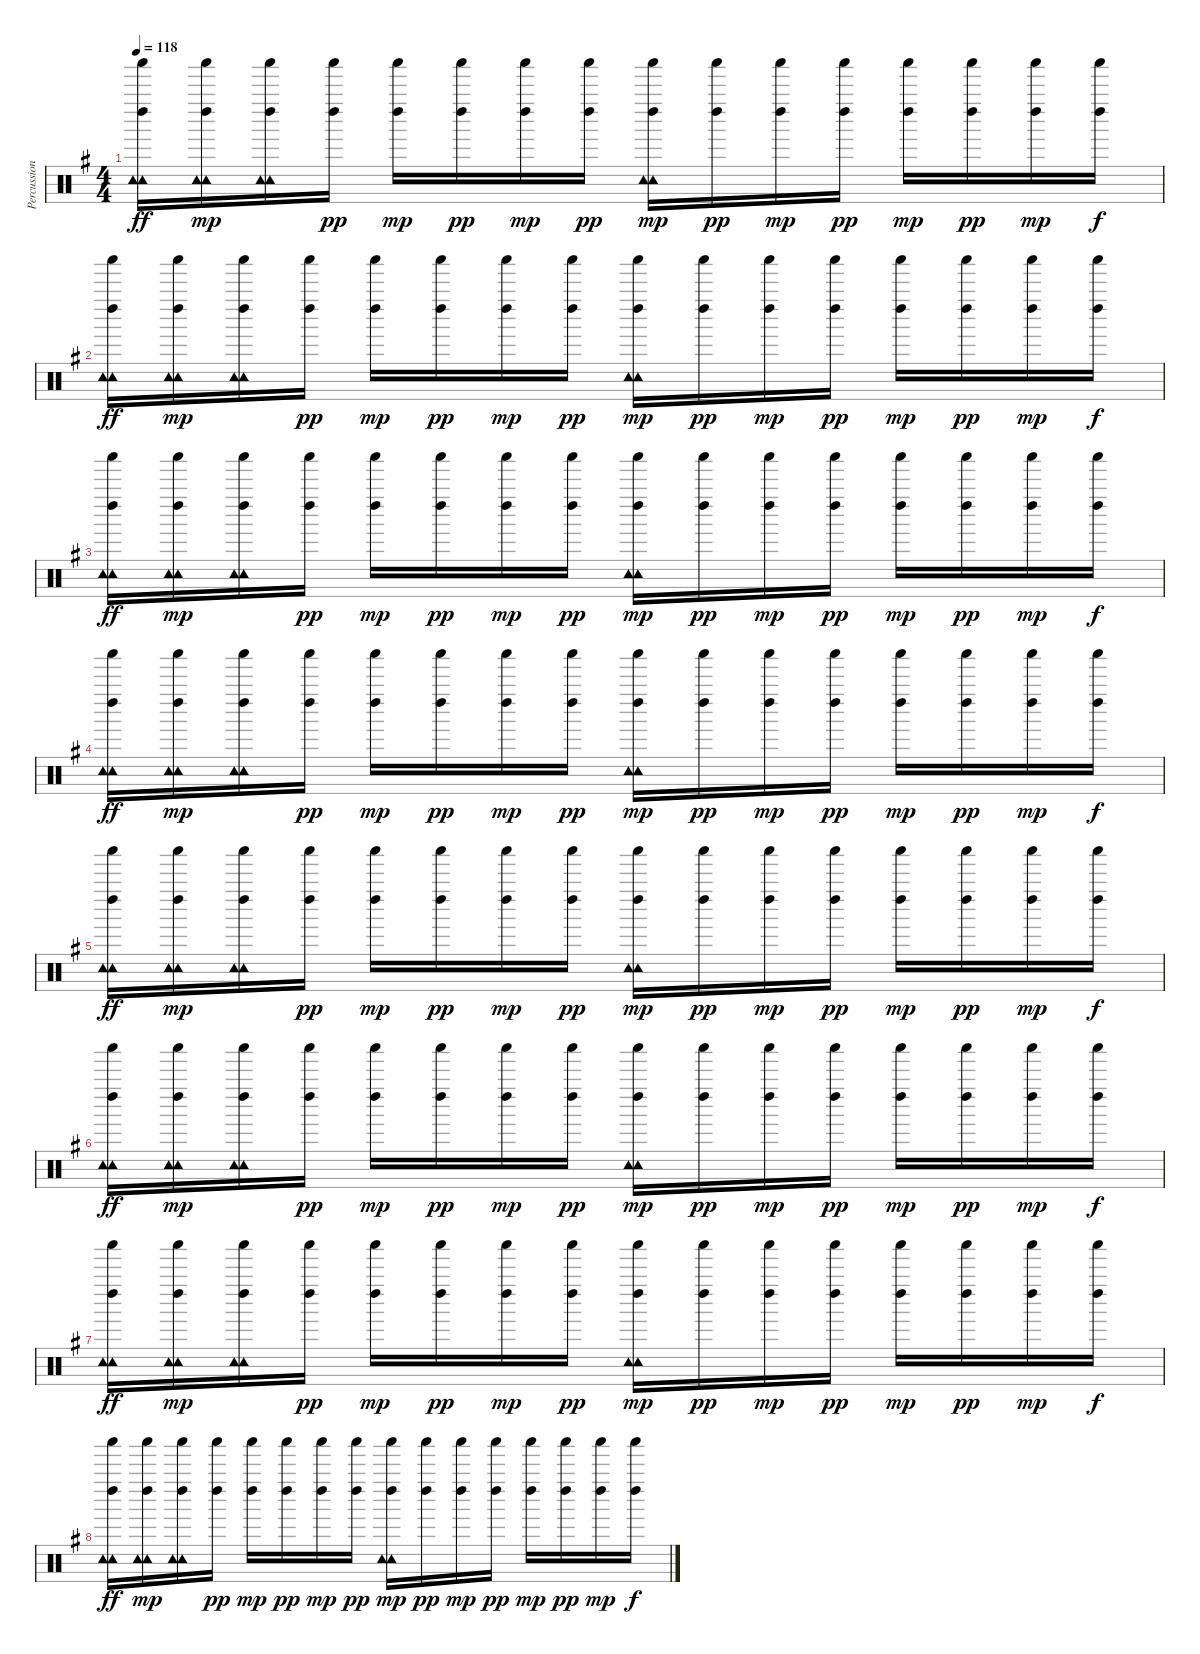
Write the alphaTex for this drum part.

\track ("Percussion" "Percussion") {instrument percussion}
\staff {score}
\articulation defaults
\ts (4 4)
\tempo 118
\clef neutral
\ks g
("Tambourine (hit)" "Tambourine (hit)" "Left Maraca (hit)" "Shaker (hit)").16{dy ff} ("Tambourine (hit)" "Tambourine (hit)" "Left Maraca (hit)" "Shaker (hit)").16{dy mp} ("Tambourine (hit)" "Tambourine (hit)" "Left Maraca (hit)" "Shaker (hit)").16 ("Left Maraca (hit)" "Shaker (hit)").16{dy pp} ("Left Maraca (hit)" "Shaker (hit)").16{dy mp} ("Left Maraca (hit)" "Shaker (hit)").16{dy pp} ("Left Maraca (hit)" "Shaker (hit)").16{dy mp} ("Left Maraca (hit)" "Shaker (hit)").16{dy pp} ("Tambourine (hit)" "Tambourine (hit)" "Left Maraca (hit)" "Shaker (hit)").16{dy mp} ("Left Maraca (hit)" "Shaker (hit)").16{dy pp} ("Left Maraca (hit)" "Shaker (hit)").16{dy mp} ("Left Maraca (hit)" "Shaker (hit)").16{dy pp} ("Left Maraca (hit)" "Shaker (hit)").16{dy mp} ("Left Maraca (hit)" "Shaker (hit)").16{dy pp} ("Left Maraca (hit)" "Shaker (hit)").16{dy mp} ("Left Maraca (hit)" "Shaker (hit)").16{dy f} |
("Tambourine (hit)" "Tambourine (hit)" "Left Maraca (hit)" "Shaker (hit)").16{dy ff} ("Tambourine (hit)" "Tambourine (hit)" "Left Maraca (hit)" "Shaker (hit)").16{dy mp} ("Tambourine (hit)" "Tambourine (hit)" "Left Maraca (hit)" "Shaker (hit)").16 ("Left Maraca (hit)" "Shaker (hit)").16{dy pp} ("Left Maraca (hit)" "Shaker (hit)").16{dy mp} ("Left Maraca (hit)" "Shaker (hit)").16{dy pp} ("Left Maraca (hit)" "Shaker (hit)").16{dy mp} ("Left Maraca (hit)" "Shaker (hit)").16{dy pp} ("Tambourine (hit)" "Tambourine (hit)" "Left Maraca (hit)" "Shaker (hit)").16{dy mp} ("Left Maraca (hit)" "Shaker (hit)").16{dy pp} ("Left Maraca (hit)" "Shaker (hit)").16{dy mp} ("Left Maraca (hit)" "Shaker (hit)").16{dy pp} ("Left Maraca (hit)" "Shaker (hit)").16{dy mp} ("Left Maraca (hit)" "Shaker (hit)").16{dy pp} ("Left Maraca (hit)" "Shaker (hit)").16{dy mp} ("Left Maraca (hit)" "Shaker (hit)").16{dy f} |
("Tambourine (hit)" "Tambourine (hit)" "Left Maraca (hit)" "Shaker (hit)").16{dy ff} ("Tambourine (hit)" "Tambourine (hit)" "Left Maraca (hit)" "Shaker (hit)").16{dy mp} ("Tambourine (hit)" "Tambourine (hit)" "Left Maraca (hit)" "Shaker (hit)").16 ("Left Maraca (hit)" "Shaker (hit)").16{dy pp} ("Left Maraca (hit)" "Shaker (hit)").16{dy mp} ("Left Maraca (hit)" "Shaker (hit)").16{dy pp} ("Left Maraca (hit)" "Shaker (hit)").16{dy mp} ("Left Maraca (hit)" "Shaker (hit)").16{dy pp} ("Tambourine (hit)" "Tambourine (hit)" "Left Maraca (hit)" "Shaker (hit)").16{dy mp} ("Left Maraca (hit)" "Shaker (hit)").16{dy pp} ("Left Maraca (hit)" "Shaker (hit)").16{dy mp} ("Left Maraca (hit)" "Shaker (hit)").16{dy pp} ("Left Maraca (hit)" "Shaker (hit)").16{dy mp} ("Left Maraca (hit)" "Shaker (hit)").16{dy pp} ("Left Maraca (hit)" "Shaker (hit)").16{dy mp} ("Left Maraca (hit)" "Shaker (hit)").16{dy f} |
("Tambourine (hit)" "Tambourine (hit)" "Left Maraca (hit)" "Shaker (hit)").16{dy ff} ("Tambourine (hit)" "Tambourine (hit)" "Left Maraca (hit)" "Shaker (hit)").16{dy mp} ("Tambourine (hit)" "Tambourine (hit)" "Left Maraca (hit)" "Shaker (hit)").16 ("Left Maraca (hit)" "Shaker (hit)").16{dy pp} ("Left Maraca (hit)" "Shaker (hit)").16{dy mp} ("Left Maraca (hit)" "Shaker (hit)").16{dy pp} ("Left Maraca (hit)" "Shaker (hit)").16{dy mp} ("Left Maraca (hit)" "Shaker (hit)").16{dy pp} ("Tambourine (hit)" "Tambourine (hit)" "Left Maraca (hit)" "Shaker (hit)").16{dy mp} ("Left Maraca (hit)" "Shaker (hit)").16{dy pp} ("Left Maraca (hit)" "Shaker (hit)").16{dy mp} ("Left Maraca (hit)" "Shaker (hit)").16{dy pp} ("Left Maraca (hit)" "Shaker (hit)").16{dy mp} ("Left Maraca (hit)" "Shaker (hit)").16{dy pp} ("Left Maraca (hit)" "Shaker (hit)").16{dy mp} ("Left Maraca (hit)" "Shaker (hit)").16{dy f} |
("Tambourine (hit)" "Tambourine (hit)" "Left Maraca (hit)" "Shaker (hit)").16{dy ff} ("Tambourine (hit)" "Tambourine (hit)" "Left Maraca (hit)" "Shaker (hit)").16{dy mp} ("Tambourine (hit)" "Tambourine (hit)" "Left Maraca (hit)" "Shaker (hit)").16 ("Left Maraca (hit)" "Shaker (hit)").16{dy pp} ("Left Maraca (hit)" "Shaker (hit)").16{dy mp} ("Left Maraca (hit)" "Shaker (hit)").16{dy pp} ("Left Maraca (hit)" "Shaker (hit)").16{dy mp} ("Left Maraca (hit)" "Shaker (hit)").16{dy pp} ("Tambourine (hit)" "Tambourine (hit)" "Left Maraca (hit)" "Shaker (hit)").16{dy mp} ("Left Maraca (hit)" "Shaker (hit)").16{dy pp} ("Left Maraca (hit)" "Shaker (hit)").16{dy mp} ("Left Maraca (hit)" "Shaker (hit)").16{dy pp} ("Left Maraca (hit)" "Shaker (hit)").16{dy mp} ("Left Maraca (hit)" "Shaker (hit)").16{dy pp} ("Left Maraca (hit)" "Shaker (hit)").16{dy mp} ("Left Maraca (hit)" "Shaker (hit)").16{dy f} |
("Tambourine (hit)" "Tambourine (hit)" "Left Maraca (hit)" "Shaker (hit)").16{dy ff} ("Tambourine (hit)" "Tambourine (hit)" "Left Maraca (hit)" "Shaker (hit)").16{dy mp} ("Tambourine (hit)" "Tambourine (hit)" "Left Maraca (hit)" "Shaker (hit)").16 ("Left Maraca (hit)" "Shaker (hit)").16{dy pp} ("Left Maraca (hit)" "Shaker (hit)").16{dy mp} ("Left Maraca (hit)" "Shaker (hit)").16{dy pp} ("Left Maraca (hit)" "Shaker (hit)").16{dy mp} ("Left Maraca (hit)" "Shaker (hit)").16{dy pp} ("Tambourine (hit)" "Tambourine (hit)" "Left Maraca (hit)" "Shaker (hit)").16{dy mp} ("Left Maraca (hit)" "Shaker (hit)").16{dy pp} ("Left Maraca (hit)" "Shaker (hit)").16{dy mp} ("Left Maraca (hit)" "Shaker (hit)").16{dy pp} ("Left Maraca (hit)" "Shaker (hit)").16{dy mp} ("Left Maraca (hit)" "Shaker (hit)").16{dy pp} ("Left Maraca (hit)" "Shaker (hit)").16{dy mp} ("Left Maraca (hit)" "Shaker (hit)").16{dy f} |
("Tambourine (hit)" "Tambourine (hit)" "Left Maraca (hit)" "Shaker (hit)").16{dy ff} ("Tambourine (hit)" "Tambourine (hit)" "Left Maraca (hit)" "Shaker (hit)").16{dy mp} ("Tambourine (hit)" "Tambourine (hit)" "Left Maraca (hit)" "Shaker (hit)").16 ("Left Maraca (hit)" "Shaker (hit)").16{dy pp} ("Left Maraca (hit)" "Shaker (hit)").16{dy mp} ("Left Maraca (hit)" "Shaker (hit)").16{dy pp} ("Left Maraca (hit)" "Shaker (hit)").16{dy mp} ("Left Maraca (hit)" "Shaker (hit)").16{dy pp} ("Tambourine (hit)" "Tambourine (hit)" "Left Maraca (hit)" "Shaker (hit)").16{dy mp} ("Left Maraca (hit)" "Shaker (hit)").16{dy pp} ("Left Maraca (hit)" "Shaker (hit)").16{dy mp} ("Left Maraca (hit)" "Shaker (hit)").16{dy pp} ("Left Maraca (hit)" "Shaker (hit)").16{dy mp} ("Left Maraca (hit)" "Shaker (hit)").16{dy pp} ("Left Maraca (hit)" "Shaker (hit)").16{dy mp} ("Left Maraca (hit)" "Shaker (hit)").16{dy f} |
("Tambourine (hit)" "Tambourine (hit)" "Left Maraca (hit)" "Shaker (hit)").16{dy ff} ("Tambourine (hit)" "Tambourine (hit)" "Left Maraca (hit)" "Shaker (hit)").16{dy mp} ("Tambourine (hit)" "Tambourine (hit)" "Left Maraca (hit)" "Shaker (hit)").16 ("Left Maraca (hit)" "Shaker (hit)").16{dy pp} ("Left Maraca (hit)" "Shaker (hit)").16{dy mp} ("Left Maraca (hit)" "Shaker (hit)").16{dy pp} ("Left Maraca (hit)" "Shaker (hit)").16{dy mp} ("Left Maraca (hit)" "Shaker (hit)").16{dy pp} ("Tambourine (hit)" "Tambourine (hit)" "Left Maraca (hit)" "Shaker (hit)").16{dy mp} ("Left Maraca (hit)" "Shaker (hit)").16{dy pp} ("Left Maraca (hit)" "Shaker (hit)").16{dy mp} ("Left Maraca (hit)" "Shaker (hit)").16{dy pp} ("Left Maraca (hit)" "Shaker (hit)").16{dy mp} ("Left Maraca (hit)" "Shaker (hit)").16{dy pp} ("Left Maraca (hit)" "Shaker (hit)").16{dy mp} ("Left Maraca (hit)" "Shaker (hit)").16{dy f}
